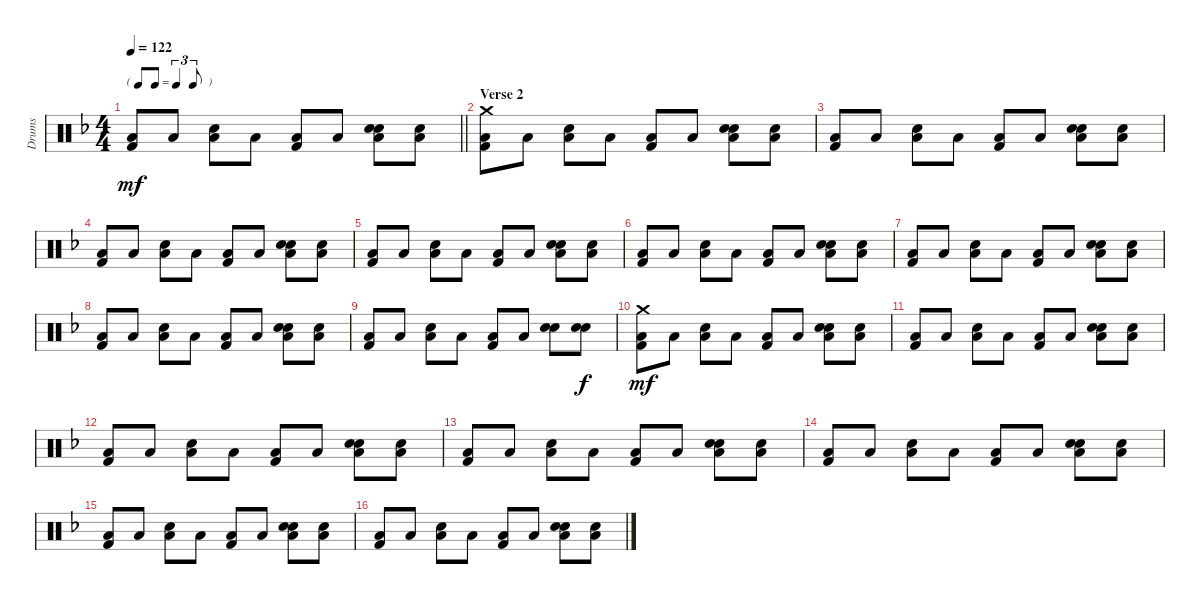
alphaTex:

\track ("Drums" "Drums") {instrument percussion}
\staff {score}
\articulation defaults
\ts (4 4)
\tf triplet8th
\tempo 122
\clef neutral
\barLineRight lightlight
\ks dminor
("Low Floor Tom (hit)" "Kick (hit) 2").8{dy mf} "Low Floor Tom (hit)".8 ("Low Floor Tom (hit)" "Snare (hit) 2").8 "Low Floor Tom (hit)".8 ("Low Floor Tom (hit)" "Kick (hit) 2").8 "Low Floor Tom (hit)".8 ("Hand Clap (hit)" "Low Floor Tom (hit)" "Snare (hit) 2").8 ("Hand Clap (hit)" "Low Floor Tom (hit)").8 |
\section ("" "Verse 2")
("Crash medium (hit)" "Low Floor Tom (hit)" "Kick (hit) 2").8 "Low Floor Tom (hit)".8 ("Low Floor Tom (hit)" "Snare (hit) 2").8 "Low Floor Tom (hit)".8 ("Low Floor Tom (hit)" "Kick (hit) 2").8 "Low Floor Tom (hit)".8 ("Hand Clap (hit)" "Low Floor Tom (hit)" "Snare (hit) 2").8 ("Hand Clap (hit)" "Low Floor Tom (hit)").8 |
("Low Floor Tom (hit)" "Kick (hit) 2").8 "Low Floor Tom (hit)".8 ("Low Floor Tom (hit)" "Snare (hit) 2").8 "Low Floor Tom (hit)".8 ("Low Floor Tom (hit)" "Kick (hit) 2").8 "Low Floor Tom (hit)".8 ("Hand Clap (hit)" "Low Floor Tom (hit)" "Snare (hit) 2").8 ("Hand Clap (hit)" "Low Floor Tom (hit)").8 |
("Low Floor Tom (hit)" "Kick (hit) 2").8 "Low Floor Tom (hit)".8 ("Low Floor Tom (hit)" "Snare (hit) 2").8 "Low Floor Tom (hit)".8 ("Low Floor Tom (hit)" "Kick (hit) 2").8 "Low Floor Tom (hit)".8 ("Hand Clap (hit)" "Low Floor Tom (hit)" "Snare (hit) 2").8 ("Hand Clap (hit)" "Low Floor Tom (hit)").8 |
("Low Floor Tom (hit)" "Kick (hit) 2").8 "Low Floor Tom (hit)".8 ("Low Floor Tom (hit)" "Snare (hit) 2").8 "Low Floor Tom (hit)".8 ("Low Floor Tom (hit)" "Kick (hit) 2").8 "Low Floor Tom (hit)".8 ("Hand Clap (hit)" "Low Floor Tom (hit)" "Snare (hit) 2").8 ("Hand Clap (hit)" "Low Floor Tom (hit)").8 |
("Low Floor Tom (hit)" "Kick (hit) 2").8 "Low Floor Tom (hit)".8 ("Low Floor Tom (hit)" "Snare (hit) 2").8 "Low Floor Tom (hit)".8 ("Low Floor Tom (hit)" "Kick (hit) 2").8 "Low Floor Tom (hit)".8 ("Hand Clap (hit)" "Low Floor Tom (hit)" "Snare (hit) 2").8 ("Hand Clap (hit)" "Low Floor Tom (hit)").8 |
("Low Floor Tom (hit)" "Kick (hit) 2").8 "Low Floor Tom (hit)".8 ("Low Floor Tom (hit)" "Snare (hit) 2").8 "Low Floor Tom (hit)".8 ("Low Floor Tom (hit)" "Kick (hit) 2").8 "Low Floor Tom (hit)".8 ("Hand Clap (hit)" "Low Floor Tom (hit)" "Snare (hit) 2").8 ("Hand Clap (hit)" "Low Floor Tom (hit)").8 |
("Low Floor Tom (hit)" "Kick (hit) 2").8 "Low Floor Tom (hit)".8 ("Low Floor Tom (hit)" "Snare (hit) 2").8 "Low Floor Tom (hit)".8 ("Low Floor Tom (hit)" "Kick (hit) 2").8 "Low Floor Tom (hit)".8 ("Hand Clap (hit)" "Low Floor Tom (hit)" "Snare (hit) 2").8 ("Hand Clap (hit)" "Low Floor Tom (hit)").8 |
("Low Floor Tom (hit)" "Kick (hit) 2").8 "Low Floor Tom (hit)".8 ("Low Floor Tom (hit)" "Snare (hit) 2").8 "Low Floor Tom (hit)".8 ("Low Floor Tom (hit)" "Kick (hit) 2").8 "Low Floor Tom (hit)".8 ("Hand Clap (hit)" "Snare (hit) 2").8 ("Hand Clap (hit)" "Snare (hit) 2").8{dy f} |
("Crash medium (hit)" "Low Floor Tom (hit)" "Kick (hit) 2").8{dy mf} "Low Floor Tom (hit)".8 ("Low Floor Tom (hit)" "Snare (hit) 2").8 "Low Floor Tom (hit)".8 ("Low Floor Tom (hit)" "Kick (hit) 2").8 "Low Floor Tom (hit)".8 ("Hand Clap (hit)" "Low Floor Tom (hit)" "Snare (hit) 2").8 ("Hand Clap (hit)" "Low Floor Tom (hit)").8 |
("Low Floor Tom (hit)" "Kick (hit) 2").8 "Low Floor Tom (hit)".8 ("Low Floor Tom (hit)" "Snare (hit) 2").8 "Low Floor Tom (hit)".8 ("Low Floor Tom (hit)" "Kick (hit) 2").8 "Low Floor Tom (hit)".8 ("Hand Clap (hit)" "Low Floor Tom (hit)" "Snare (hit) 2").8 ("Hand Clap (hit)" "Low Floor Tom (hit)").8 |
("Low Floor Tom (hit)" "Kick (hit) 2").8 "Low Floor Tom (hit)".8 ("Low Floor Tom (hit)" "Snare (hit) 2").8 "Low Floor Tom (hit)".8 ("Low Floor Tom (hit)" "Kick (hit) 2").8 "Low Floor Tom (hit)".8 ("Hand Clap (hit)" "Low Floor Tom (hit)" "Snare (hit) 2").8 ("Hand Clap (hit)" "Low Floor Tom (hit)").8 |
("Low Floor Tom (hit)" "Kick (hit) 2").8 "Low Floor Tom (hit)".8 ("Low Floor Tom (hit)" "Snare (hit) 2").8 "Low Floor Tom (hit)".8 ("Low Floor Tom (hit)" "Kick (hit) 2").8 "Low Floor Tom (hit)".8 ("Hand Clap (hit)" "Low Floor Tom (hit)" "Snare (hit) 2").8 ("Hand Clap (hit)" "Low Floor Tom (hit)").8 |
("Low Floor Tom (hit)" "Kick (hit) 2").8 "Low Floor Tom (hit)".8 ("Low Floor Tom (hit)" "Snare (hit) 2").8 "Low Floor Tom (hit)".8 ("Low Floor Tom (hit)" "Kick (hit) 2").8 "Low Floor Tom (hit)".8 ("Hand Clap (hit)" "Low Floor Tom (hit)" "Snare (hit) 2").8 ("Hand Clap (hit)" "Low Floor Tom (hit)").8 |
("Low Floor Tom (hit)" "Kick (hit) 2").8 "Low Floor Tom (hit)".8 ("Low Floor Tom (hit)" "Snare (hit) 2").8 "Low Floor Tom (hit)".8 ("Low Floor Tom (hit)" "Kick (hit) 2").8 "Low Floor Tom (hit)".8 ("Hand Clap (hit)" "Low Floor Tom (hit)" "Snare (hit) 2").8 ("Hand Clap (hit)" "Low Floor Tom (hit)").8 |
("Low Floor Tom (hit)" "Kick (hit) 2").8 "Low Floor Tom (hit)".8 ("Low Floor Tom (hit)" "Snare (hit) 2").8 "Low Floor Tom (hit)".8 ("Low Floor Tom (hit)" "Kick (hit) 2").8 "Low Floor Tom (hit)".8 ("Hand Clap (hit)" "Low Floor Tom (hit)" "Snare (hit) 2").8 ("Hand Clap (hit)" "Low Floor Tom (hit)").8
